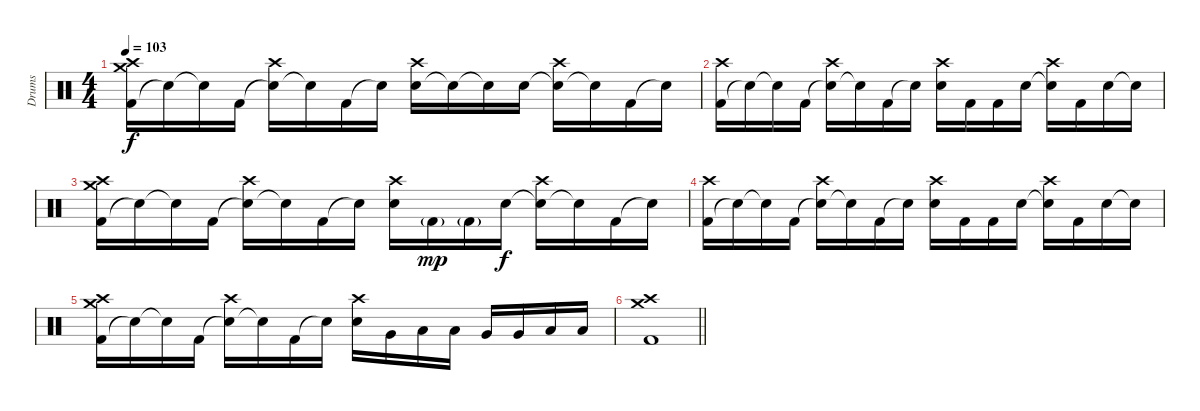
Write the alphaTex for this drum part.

\track ("Drums" "Drums") {instrument percussion}
\staff {score}
\articulation defaults
\ts (4 4)
\tempo 103
\clef neutral
\ks c
("Kick (hit) 2" "Crash medium (hit)" "Crash high (hit)").16{dy f} "Snare (hit)"{t}.16 "Snare (hit)"{t}.16 "Kick (hit) 2".16 ("Snare (hit)"{t} "Crash high (hit)").16 "Snare (hit)"{t}.16 "Kick (hit) 2".16 "Snare (hit)"{t}.16 ("Electric Snare (hit)" "Crash high (hit)").16 "Snare (hit)"{t}.16 "Snare (hit)"{t}.16 "Electric Snare (hit)".16 ("Snare (hit)"{t} "Crash high (hit)").16 "Snare (hit)"{t}.16 "Kick (hit) 2".16 "Snare (hit)"{t}.16 |
("Kick (hit) 2" "Crash high (hit)").16 "Snare (hit)"{t}.16 "Snare (hit)"{t}.16 "Kick (hit) 2".16 ("Snare (hit)"{t} "Crash high (hit)").16 "Snare (hit)"{t}.16 "Kick (hit) 2".16 "Snare (hit)"{t}.16 ("Electric Snare (hit)" "Crash high (hit)").16 "Kick (hit) 2".16 "Kick (hit) 2".16 "Electric Snare (hit)".16 ("Snare (hit)"{t} "Crash high (hit)").16 "Kick (hit) 2".16 "Electric Snare (hit)".16 "Electric Snare (hit)"{t}.16 |
("Kick (hit) 2" "Crash medium (hit)" "Crash high (hit)").16 "Snare (hit)"{t}.16 "Snare (hit)"{t}.16 "Kick (hit) 2".16 ("Snare (hit)"{t} "Crash high (hit)").16 "Snare (hit)"{t}.16 "Kick (hit) 2".16 "Snare (hit)"{t}.16 ("Electric Snare (hit)" "Crash high (hit)").16 "Kick (hit) 2"{g}.16{dy mp} "Kick (hit) 2"{g}.16 "Electric Snare (hit)".16{dy f} ("Snare (hit)"{t} "Crash high (hit)").16 "Snare (hit)"{t}.16 "Kick (hit) 2".16 "Snare (hit)"{t}.16 |
("Kick (hit) 2" "Crash high (hit)").16 "Snare (hit)"{t}.16 "Snare (hit)"{t}.16 "Kick (hit) 2".16 ("Snare (hit)"{t} "Crash high (hit)").16 "Snare (hit)"{t}.16 "Kick (hit) 2".16 "Snare (hit)"{t}.16 ("Electric Snare (hit)" "Crash high (hit)").16 "Kick (hit) 2".16 "Kick (hit) 2".16 "Electric Snare (hit)".16 ("Snare (hit)"{t} "Crash high (hit)").16 "Kick (hit) 2".16 "Electric Snare (hit)".16 "Electric Snare (hit)"{t}.16 |
("Kick (hit) 2" "Crash medium (hit)" "Crash high (hit)").16 "Snare (hit)"{t}.16 "Snare (hit)"{t}.16 "Kick (hit) 2".16 ("Snare (hit)"{t} "Crash high (hit)").16 "Snare (hit)"{t}.16 "Kick (hit) 2".16 "Snare (hit)"{t}.16 ("Electric Snare (hit)" "Crash high (hit)").16 "Very Low Tom (hit)".16 "Low Tom (hit)".16 "Low Tom (hit)".16 "Very Low Tom (hit)".16 "Very Low Tom (hit)".16 "Low Floor Tom (hit)".16 "Low Floor Tom (hit)".16 |
\barLineRight lightlight
("Kick (hit) 2" "Crash medium (hit)" "Crash high (hit)").1
